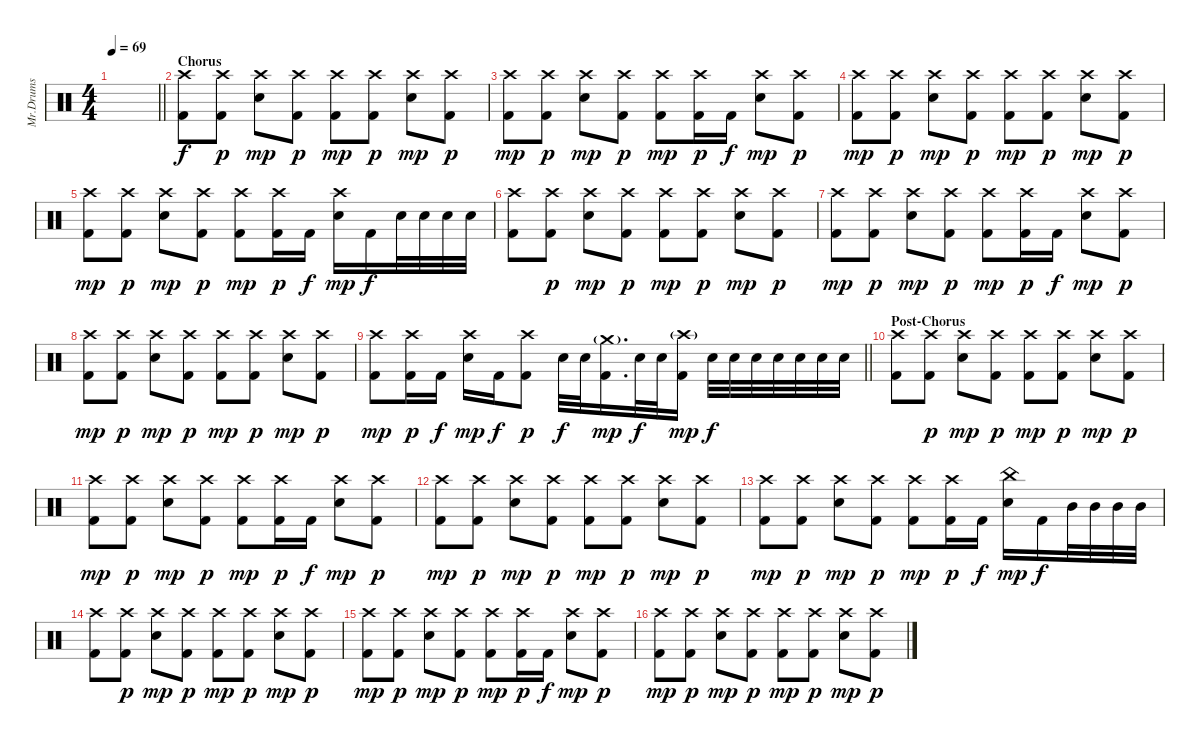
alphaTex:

\track ("Mr.Drums" "Mr.Drums") {instrument percussion}
\staff {score}
\articulation defaults
\ts (4 4)
\tempo 69
\clef neutral
\barLineRight lightlight
\ks c
|
\section ("" "Chorus")
("Crash high (hit)" "Kick (hit) 2").8 ("Crash high (hit)" "Kick (hit) 2").8{dy p} ("Crash high (hit)" "Electric Snare (hit)").8{dy mp} ("Crash high (hit)" "Kick (hit) 2").8{dy p} ("Crash high (hit)" "Kick (hit) 2").8{dy mp} ("Crash high (hit)" "Kick (hit) 2").8{dy p} ("Crash high (hit)" "Electric Snare (hit)").8{dy mp} ("Crash high (hit)" "Kick (hit) 2").8{dy p} |
("Crash high (hit)" "Kick (hit) 2").8{dy mp} ("Crash high (hit)" "Kick (hit) 2").8{dy p} ("Crash high (hit)" "Electric Snare (hit)").8{dy mp} ("Crash high (hit)" "Kick (hit) 2").8{dy p} ("Crash high (hit)" "Kick (hit) 2").8{dy mp} ("Crash high (hit)" "Kick (hit) 2").16{dy p} "Kick (hit) 2".16{dy f} ("Crash high (hit)" "Electric Snare (hit)").8{dy mp} ("Crash high (hit)" "Kick (hit) 2").8{dy p} |
("Crash high (hit)" "Kick (hit) 2").8{dy mp} ("Crash high (hit)" "Kick (hit) 2").8{dy p} ("Crash high (hit)" "Electric Snare (hit)").8{dy mp} ("Crash high (hit)" "Kick (hit) 2").8{dy p} ("Crash high (hit)" "Kick (hit) 2").8{dy mp} ("Crash high (hit)" "Kick (hit) 2").8{dy p} ("Crash high (hit)" "Electric Snare (hit)").8{dy mp} ("Crash high (hit)" "Kick (hit) 2").8{dy p} |
("Crash high (hit)" "Kick (hit) 2").8{dy mp} ("Crash high (hit)" "Kick (hit) 2").8{dy p} ("Crash high (hit)" "Electric Snare (hit)").8{dy mp} ("Crash high (hit)" "Kick (hit) 2").8{dy p} ("Crash high (hit)" "Kick (hit) 2").8{dy mp} ("Crash high (hit)" "Kick (hit) 2").16{dy p} "Kick (hit) 2".16{dy f} ("Crash high (hit)" "Electric Snare (hit)").16{dy mp} "Kick (hit) 2".16{dy f} "Electric Snare (hit)".32 "Electric Snare (hit)".32 "Electric Snare (hit)".32 "Electric Snare (hit)".32 |
("Crash high (hit)" "Kick (hit) 2").8 ("Crash high (hit)" "Kick (hit) 2").8{dy p} ("Crash high (hit)" "Electric Snare (hit)").8{dy mp} ("Crash high (hit)" "Kick (hit) 2").8{dy p} ("Crash high (hit)" "Kick (hit) 2").8{dy mp} ("Crash high (hit)" "Kick (hit) 2").8{dy p} ("Crash high (hit)" "Electric Snare (hit)").8{dy mp} ("Crash high (hit)" "Kick (hit) 2").8{dy p} |
("Crash high (hit)" "Kick (hit) 2").8{dy mp} ("Crash high (hit)" "Kick (hit) 2").8{dy p} ("Crash high (hit)" "Electric Snare (hit)").8{dy mp} ("Crash high (hit)" "Kick (hit) 2").8{dy p} ("Crash high (hit)" "Kick (hit) 2").8{dy mp} ("Crash high (hit)" "Kick (hit) 2").16{dy p} "Kick (hit) 2".16{dy f} ("Crash high (hit)" "Electric Snare (hit)").8{dy mp} ("Crash high (hit)" "Kick (hit) 2").8{dy p} |
("Crash high (hit)" "Kick (hit) 2").8{dy mp} ("Crash high (hit)" "Kick (hit) 2").8{dy p} ("Crash high (hit)" "Electric Snare (hit)").8{dy mp} ("Crash high (hit)" "Kick (hit) 2").8{dy p} ("Crash high (hit)" "Kick (hit) 2").8{dy mp} ("Crash high (hit)" "Kick (hit) 2").8{dy p} ("Crash high (hit)" "Electric Snare (hit)").8{dy mp} ("Crash high (hit)" "Kick (hit) 2").8{dy p} |
\barLineRight lightlight
("Crash high (hit)" "Kick (hit) 2").8{dy mp} ("Crash high (hit)" "Kick (hit) 2").16{dy p} "Kick (hit) 2".16{dy f} ("Crash high (hit)" "Electric Snare (hit)").16{dy mp} "Kick (hit) 2".16{dy f} ("Crash high (hit)" "Kick (hit) 2").8{dy p} "Electric Snare (hit)".32{dy f} "Electric Snare (hit)".32 ("Crash medium (hit)"{g} "Kick (hit) 2").16{d dy mp} "Electric Snare (hit)".32{dy f} "Electric Snare (hit)".32 ("Crash high (hit)"{g} "Kick (hit) 2").16{dy mp} "Electric Snare (hit)".32{dy f} "Electric Snare (hit)".32 "Electric Snare (hit)".32 "Electric Snare (hit)".32 "Electric Snare (hit)".32 "Electric Snare (hit)".32 "Electric Snare (hit)".32 |
\section ("" "Post-Chorus")
("Crash high (hit)" "Kick (hit) 2").8 ("Crash high (hit)" "Kick (hit) 2").8{dy p} ("Crash high (hit)" "Electric Snare (hit)").8{dy mp} ("Crash high (hit)" "Kick (hit) 2").8{dy p} ("Crash high (hit)" "Kick (hit) 2").8{dy mp} ("Crash high (hit)" "Kick (hit) 2").8{dy p} ("Crash high (hit)" "Electric Snare (hit)").8{dy mp} ("Crash high (hit)" "Kick (hit) 2").8{dy p} |
("Crash high (hit)" "Kick (hit) 2").8{dy mp} ("Crash high (hit)" "Kick (hit) 2").8{dy p} ("Crash high (hit)" "Electric Snare (hit)").8{dy mp} ("Crash high (hit)" "Kick (hit) 2").8{dy p} ("Crash high (hit)" "Kick (hit) 2").8{dy mp} ("Crash high (hit)" "Kick (hit) 2").16{dy p} "Kick (hit) 2".16{dy f} ("Crash high (hit)" "Electric Snare (hit)").8{dy mp} ("Crash high (hit)" "Kick (hit) 2").8{dy p} |
("Crash high (hit)" "Kick (hit) 2").8{dy mp} ("Crash high (hit)" "Kick (hit) 2").8{dy p} ("Crash high (hit)" "Electric Snare (hit)").8{dy mp} ("Crash high (hit)" "Kick (hit) 2").8{dy p} ("Crash high (hit)" "Kick (hit) 2").8{dy mp} ("Crash high (hit)" "Kick (hit) 2").8{dy p} ("Crash high (hit)" "Electric Snare (hit)").8{dy mp} ("Crash high (hit)" "Kick (hit) 2").8{dy p} |
("Crash high (hit)" "Kick (hit) 2").8{dy mp} ("Crash high (hit)" "Kick (hit) 2").8{dy p} ("Crash high (hit)" "Electric Snare (hit)").8{dy mp} ("Crash high (hit)" "Kick (hit) 2").8{dy p} ("Crash high (hit)" "Kick (hit) 2").8{dy mp} ("Crash high (hit)" "Kick (hit) 2").16{dy p} "Kick (hit) 2".16{dy f} ("China (hit)" "Electric Snare (hit)").16{dy mp} "Kick (hit) 2".16{dy f} "Mid Tom (hit)".32 "Mid Tom (hit)".32 "Mid Tom (hit)".32 "Mid Tom (hit)".32 |
("Crash high (hit)" "Kick (hit) 2").8 ("Crash high (hit)" "Kick (hit) 2").8{dy p} ("Crash high (hit)" "Electric Snare (hit)").8{dy mp} ("Crash high (hit)" "Kick (hit) 2").8{dy p} ("Crash high (hit)" "Kick (hit) 2").8{dy mp} ("Crash high (hit)" "Kick (hit) 2").8{dy p} ("Crash high (hit)" "Electric Snare (hit)").8{dy mp} ("Crash high (hit)" "Kick (hit) 2").8{dy p} |
("Crash high (hit)" "Kick (hit) 2").8{dy mp} ("Crash high (hit)" "Kick (hit) 2").8{dy p} ("Crash high (hit)" "Electric Snare (hit)").8{dy mp} ("Crash high (hit)" "Kick (hit) 2").8{dy p} ("Crash high (hit)" "Kick (hit) 2").8{dy mp} ("Crash high (hit)" "Kick (hit) 2").16{dy p} "Kick (hit) 2".16{dy f} ("Crash high (hit)" "Electric Snare (hit)").8{dy mp} ("Crash high (hit)" "Kick (hit) 2").8{dy p} |
("Crash high (hit)" "Kick (hit) 2").8{dy mp} ("Crash high (hit)" "Kick (hit) 2").8{dy p} ("Crash high (hit)" "Electric Snare (hit)").8{dy mp} ("Crash high (hit)" "Kick (hit) 2").8{dy p} ("Crash high (hit)" "Kick (hit) 2").8{dy mp} ("Crash high (hit)" "Kick (hit) 2").8{dy p} ("Crash high (hit)" "Electric Snare (hit)").8{dy mp} ("Crash high (hit)" "Kick (hit) 2").8{dy p}
